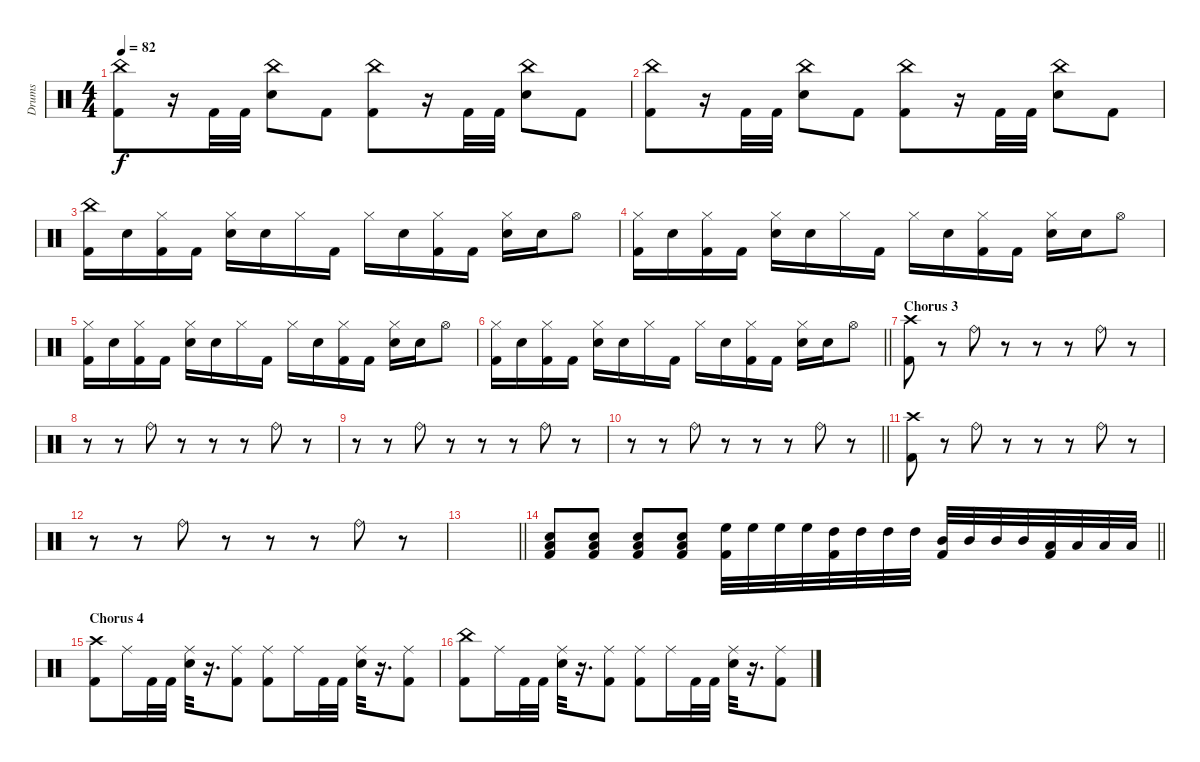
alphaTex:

\track ("Drums" "Drums") {instrument percussion}
\staff {score}
\articulation defaults
\ts (4 4)
\tempo 82
\clef neutral
\ks c
("China (hit)" "Kick (hit) 2").8{dy f} r.16 "Kick (hit) 2".32 "Kick (hit) 2".32 ("China (hit)" "Electric Snare (hit)").8 "Kick (hit) 2".8 ("China (hit)" "Kick (hit) 2").8 r.16 "Kick (hit) 2".32 "Kick (hit) 2".32 ("China (hit)" "Electric Snare (hit)").8 "Kick (hit) 2".8 |
("China (hit)" "Kick (hit) 2").8 r.16 "Kick (hit) 2".32 "Kick (hit) 2".32 ("China (hit)" "Electric Snare (hit)").8 "Kick (hit) 2".8 ("China (hit)" "Kick (hit) 2").8 r.16 "Kick (hit) 2".32 "Kick (hit) 2".32 ("China (hit)" "Electric Snare (hit)").8 "Kick (hit) 2".8 |
("China (hit)" "Kick (hit) 2").16 "Snare (hit) 2".16 ("Hi-Hat (closed)" "Kick (hit) 2").16 "Kick (hit) 2".16 ("Hi-Hat (closed)" "Snare (hit) 2").16 "Snare (hit) 2".16 "Hi-Hat (closed)".16 "Kick (hit) 2".16 "Hi-Hat (closed)".16 "Snare (hit) 2".16 ("Hi-Hat (closed)" "Kick (hit) 2").16 "Kick (hit) 2".16 ("Hi-Hat (closed)" "Snare (hit) 2").16 "Snare (hit) 2".16 "Hi-Hat (open)".8 |
("Hi-Hat (closed)" "Kick (hit) 2").16 "Snare (hit) 2".16 ("Hi-Hat (closed)" "Kick (hit) 2").16 "Kick (hit) 2".16 ("Hi-Hat (closed)" "Snare (hit) 2").16 "Snare (hit) 2".16 "Hi-Hat (closed)".16 "Kick (hit) 2".16 "Hi-Hat (closed)".16 "Snare (hit) 2".16 ("Hi-Hat (closed)" "Kick (hit) 2").16 "Kick (hit) 2".16 ("Hi-Hat (closed)" "Snare (hit) 2").16 "Snare (hit) 2".16 "Hi-Hat (open)".8 |
("Hi-Hat (closed)" "Kick (hit) 2").16 "Snare (hit) 2".16 ("Hi-Hat (closed)" "Kick (hit) 2").16 "Kick (hit) 2".16 ("Hi-Hat (closed)" "Snare (hit) 2").16 "Snare (hit) 2".16 "Hi-Hat (closed)".16 "Kick (hit) 2".16 "Hi-Hat (closed)".16 "Snare (hit) 2".16 ("Hi-Hat (closed)" "Kick (hit) 2").16 "Kick (hit) 2".16 ("Hi-Hat (closed)" "Snare (hit) 2").16 "Snare (hit) 2".16 "Hi-Hat (open)".8 |
\barLineRight lightlight
("Hi-Hat (closed)" "Kick (hit) 2").16 "Snare (hit) 2".16 ("Hi-Hat (closed)" "Kick (hit) 2").16 "Kick (hit) 2".16 ("Hi-Hat (closed)" "Snare (hit) 2").16 "Snare (hit) 2".16 "Hi-Hat (closed)".16 "Kick (hit) 2".16 "Hi-Hat (closed)".16 "Snare (hit) 2".16 ("Hi-Hat (closed)" "Kick (hit) 2").16 "Kick (hit) 2".16 ("Hi-Hat (closed)" "Snare (hit) 2").16 "Snare (hit) 2".16 "Hi-Hat (open)".8 |
\section ("" "Chorus 3")
("Crash high (hit)" "Kick (hit) 2").8 r.8 "Ride (bell)".8 r.8 r.8 r.8 "Ride (bell)".8 r.8 |
r.8 r.8 "Ride (bell)".8 r.8 r.8 r.8 "Ride (bell)".8 r.8 |
r.8 r.8 "Ride (bell)".8 r.8 r.8 r.8 "Ride (bell)".8 r.8 |
\barLineRight lightlight
r.8 r.8 "Ride (bell)".8 r.8 r.8 r.8 "Ride (bell)".8 r.8 |
("Crash high (hit)" "Kick (hit) 2").8 r.8 "Ride (bell)".8 r.8 r.8 r.8 "Ride (bell)".8 r.8 |
r.8 r.8 "Ride (bell)".8 r.8 r.8 r.8 "Ride (bell)".8 r.8 |
\barLineRight lightlight
|
\barLineRight lightlight
("Low Floor Tom (hit)" "Electric Snare (hit)" "Kick (hit) 2").8{volume 16} ("Low Floor Tom (hit)" "Electric Snare (hit)" "Kick (hit) 2").8 ("Low Floor Tom (hit)" "Electric Snare (hit)" "Kick (hit) 2").8 ("Low Floor Tom (hit)" "Electric Snare (hit)" "Kick (hit) 2").8 ("High Floor Tom (hit)" "Kick (hit) 2").32 "High Floor Tom (hit)".32 "High Floor Tom (hit)".32 "High Floor Tom (hit)".32 ("High Tom (hit)" "Kick (hit) 2").32 "High Tom (hit)".32 "High Tom (hit)".32 "High Tom (hit)".32 ("Mid Tom (hit)" "Kick (hit) 2").32 "Mid Tom (hit)".32 "Mid Tom (hit)".32 "Mid Tom (hit)".32 ("Kick (hit) 2" "Low Tom (hit)").32 "Low Tom (hit)".32 "Low Tom (hit)".32 "Low Tom (hit)".32 |
\section ("" "Chorus 4")
("Crash high (hit)" "Kick (hit) 2").8 "Ride (middle)".16 "Kick (hit) 2".32 "Kick (hit) 2".32 ("Ride (middle)" "Electric Snare (hit)").32 r.16{d} ("Ride (middle)" "Kick (hit) 2").8 ("Ride (middle)" "Kick (hit) 2").8 "Ride (middle)".16 "Kick (hit) 2".32 "Kick (hit) 2".32 ("Ride (middle)" "Electric Snare (hit)").32 r.16{d} ("Ride (middle)" "Kick (hit) 2").8 |
("China (hit)" "Kick (hit) 2").8 "Ride (middle)".16 "Kick (hit) 2".32 "Kick (hit) 2".32 ("Ride (middle)" "Electric Snare (hit)").32 r.16{d} ("Ride (middle)" "Kick (hit) 2").8 ("Ride (middle)" "Kick (hit) 2").8 "Ride (middle)".16 "Kick (hit) 2".32 "Kick (hit) 2".32 ("Ride (middle)" "Electric Snare (hit)").32 r.16{d} ("Ride (middle)" "Kick (hit) 2").8
